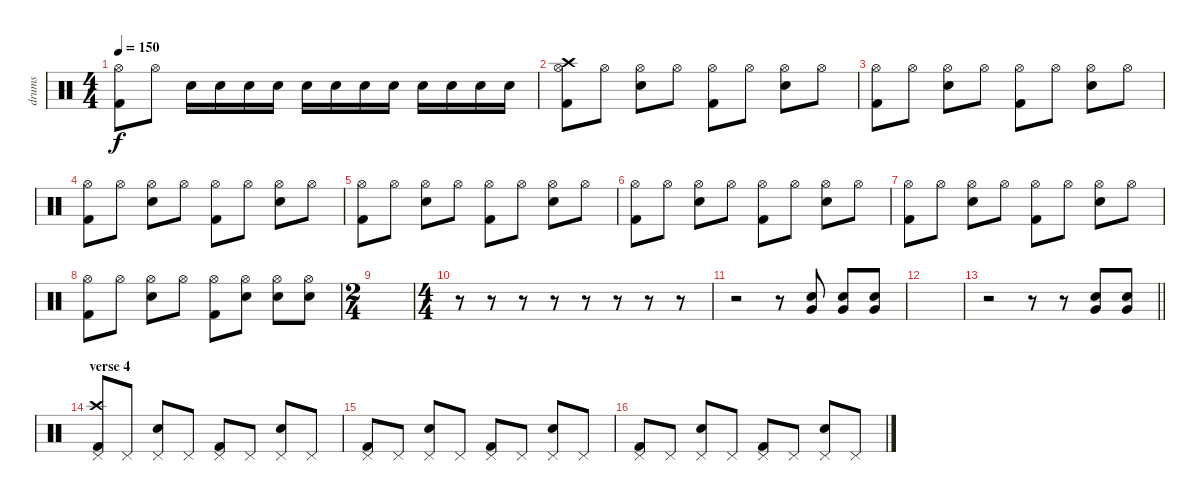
\track ("drums" "drums") {instrument percussion}
\staff {score}
\articulation defaults
\ts (4 4)
\tempo 150
\clef neutral
\ks c
("Kick (hit) 2" "Hi-Hat (open)").8{dy f} "Hi-Hat (open)".8 "Electric Snare (hit)".16 "Electric Snare (hit)".16 "Electric Snare (hit)".16 "Electric Snare (hit)".16 "Electric Snare (hit)".16 "Electric Snare (hit)".16 "Electric Snare (hit)".16 "Electric Snare (hit)".16 "Electric Snare (hit)".16 "Electric Snare (hit)".16 "Electric Snare (hit)".16 "Electric Snare (hit)".16 |
("Kick (hit) 2" "Hi-Hat (open)" "Crash high (hit)").8 "Hi-Hat (open)".8 ("Electric Snare (hit)" "Hi-Hat (open)").8 "Hi-Hat (open)".8 ("Kick (hit) 2" "Hi-Hat (open)").8 "Hi-Hat (open)".8 ("Electric Snare (hit)" "Hi-Hat (open)").8 "Hi-Hat (open)".8 |
("Kick (hit) 2" "Hi-Hat (open)").8 "Hi-Hat (open)".8 ("Electric Snare (hit)" "Hi-Hat (open)").8 "Hi-Hat (open)".8 ("Kick (hit) 2" "Hi-Hat (open)").8 "Hi-Hat (open)".8 ("Electric Snare (hit)" "Hi-Hat (open)").8 "Hi-Hat (open)".8 |
("Kick (hit) 2" "Hi-Hat (open)").8 "Hi-Hat (open)".8 ("Electric Snare (hit)" "Hi-Hat (open)").8 "Hi-Hat (open)".8 ("Kick (hit) 2" "Hi-Hat (open)").8 "Hi-Hat (open)".8 ("Electric Snare (hit)" "Hi-Hat (open)").8 "Hi-Hat (open)".8 |
("Kick (hit) 2" "Hi-Hat (open)").8 "Hi-Hat (open)".8 ("Electric Snare (hit)" "Hi-Hat (open)").8 "Hi-Hat (open)".8 ("Kick (hit) 2" "Hi-Hat (open)").8 "Hi-Hat (open)".8 ("Electric Snare (hit)" "Hi-Hat (open)").8 "Hi-Hat (open)".8 |
("Kick (hit) 2" "Hi-Hat (open)").8 "Hi-Hat (open)".8 ("Electric Snare (hit)" "Hi-Hat (open)").8 "Hi-Hat (open)".8 ("Kick (hit) 2" "Hi-Hat (open)").8 "Hi-Hat (open)".8 ("Electric Snare (hit)" "Hi-Hat (open)").8 "Hi-Hat (open)".8 |
("Kick (hit) 2" "Hi-Hat (open)").8 "Hi-Hat (open)".8 ("Electric Snare (hit)" "Hi-Hat (open)").8 "Hi-Hat (open)".8 ("Kick (hit) 2" "Hi-Hat (open)").8 "Hi-Hat (open)".8 ("Electric Snare (hit)" "Hi-Hat (open)").8 "Hi-Hat (open)".8 |
("Kick (hit) 2" "Hi-Hat (open)").8 "Hi-Hat (open)".8 ("Electric Snare (hit)" "Hi-Hat (open)").8 "Hi-Hat (open)".8 ("Kick (hit) 2" "Hi-Hat (open)").8 ("Electric Snare (hit)" "Hi-Hat (open)").8 ("Electric Snare (hit)" "Hi-Hat (open)").8 ("Electric Snare (hit)" "Hi-Hat (open)").8 |
\ts (2 4)
|
\ts (4 4)
r.8 r.8 r.8 r.8 r.8 r.8 r.8 r.8 |
r.2 r.8 ("Electric Snare (hit)" "Very Low Tom (hit)").8 ("Electric Snare (hit)" "Very Low Tom (hit)").8 ("Electric Snare (hit)" "Very Low Tom (hit)").8 |
|
\barLineRight lightlight
r.2 r.8 r.8 ("Electric Snare (hit)" "Very Low Tom (hit)").8 ("Electric Snare (hit)" "Very Low Tom (hit)").8 |
\section ("" "verse 4")
("Kick (hit) 2" "Pedal Hi-Hat (hit)" "Crash high (hit)").8{volume 12} "Pedal Hi-Hat (hit)".8 ("Electric Snare (hit)" "Pedal Hi-Hat (hit)").8 "Pedal Hi-Hat (hit)".8 ("Kick (hit) 2" "Pedal Hi-Hat (hit)").8 "Pedal Hi-Hat (hit)".8 ("Electric Snare (hit)" "Pedal Hi-Hat (hit)").8 "Pedal Hi-Hat (hit)".8 |
("Kick (hit) 2" "Pedal Hi-Hat (hit)").8 "Pedal Hi-Hat (hit)".8 ("Electric Snare (hit)" "Pedal Hi-Hat (hit)").8 "Pedal Hi-Hat (hit)".8 ("Kick (hit) 2" "Pedal Hi-Hat (hit)").8 "Pedal Hi-Hat (hit)".8 ("Electric Snare (hit)" "Pedal Hi-Hat (hit)").8 "Pedal Hi-Hat (hit)".8 |
("Kick (hit) 2" "Pedal Hi-Hat (hit)").8 "Pedal Hi-Hat (hit)".8 ("Electric Snare (hit)" "Pedal Hi-Hat (hit)").8 "Pedal Hi-Hat (hit)".8 ("Kick (hit) 2" "Pedal Hi-Hat (hit)").8 "Pedal Hi-Hat (hit)".8 ("Electric Snare (hit)" "Pedal Hi-Hat (hit)").8 "Pedal Hi-Hat (hit)".8
